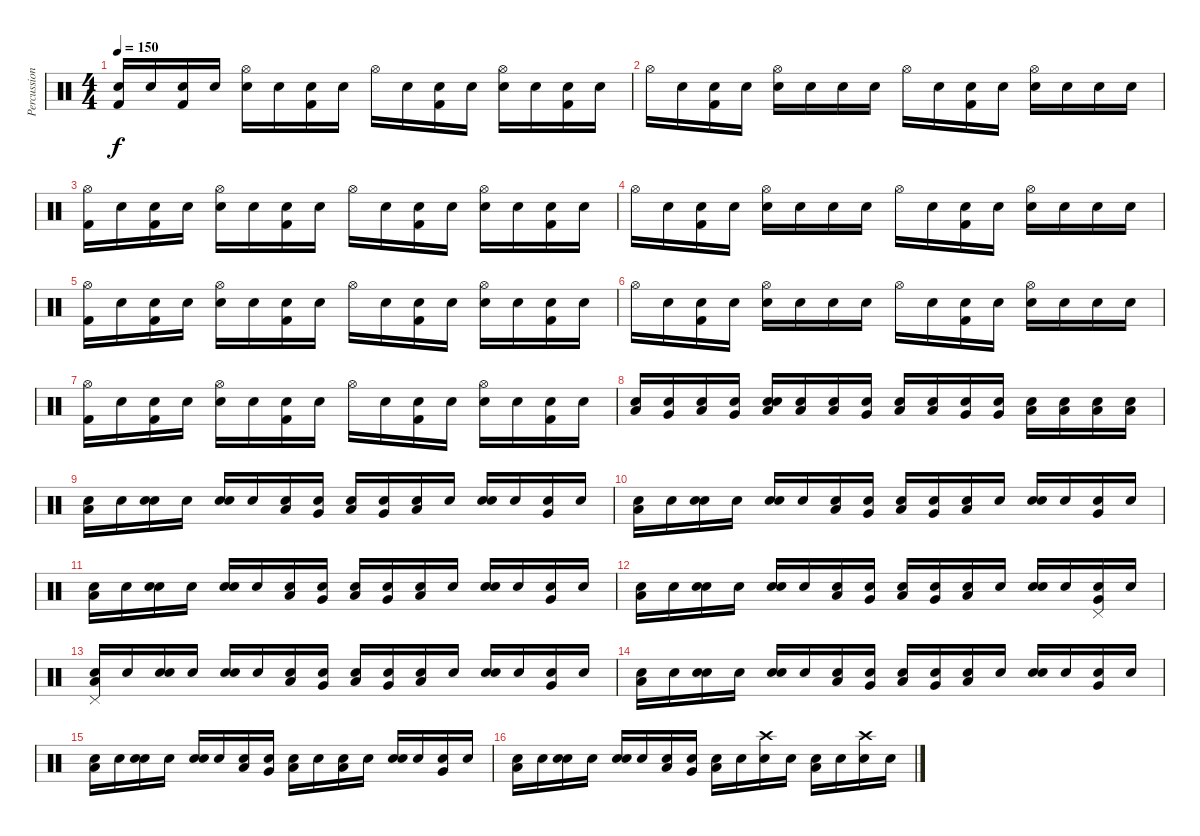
\track ("Percussion" "Percussion") {instrument percussion}
\staff {score}
\articulation defaults
\ts (4 4)
\tempo 150
\clef neutral
\ks c
("Snare (hit)" "Kick (hit) 2").16{dy f} "Snare (hit)".16 ("Snare (hit)" "Kick (hit) 2").16 "Snare (hit)".16 ("Hi-Hat (open)" "Electric Snare (hit)").16 "Snare (hit)".16 ("Snare (hit)" "Kick (hit) 2").16 "Snare (hit)".16 "Hi-Hat (open)".16 "Snare (hit)".16 ("Snare (hit)" "Kick (hit) 2").16 "Snare (hit)".16 ("Hi-Hat (open)" "Electric Snare (hit)").16 "Snare (hit)".16 ("Snare (hit)" "Kick (hit) 2").16 "Snare (hit)".16 |
"Hi-Hat (open)".16 "Snare (hit)".16 ("Snare (hit)" "Kick (hit) 2").16 "Snare (hit)".16 ("Hi-Hat (open)" "Electric Snare (hit)").16 "Snare (hit)".16 "Snare (hit)".16 "Snare (hit)".16 "Hi-Hat (open)".16 "Snare (hit)".16 ("Snare (hit)" "Kick (hit) 2").16 "Snare (hit)".16 ("Hi-Hat (open)" "Electric Snare (hit)").16 "Snare (hit)".16 "Snare (hit)".16 "Snare (hit)".16 |
("Hi-Hat (open)" "Kick (hit) 2").16 "Snare (hit)".16 ("Snare (hit)" "Kick (hit) 2").16 "Snare (hit)".16 ("Hi-Hat (open)" "Electric Snare (hit)").16 "Snare (hit)".16 ("Snare (hit)" "Kick (hit) 2").16 "Snare (hit)".16 "Hi-Hat (open)".16 "Snare (hit)".16 ("Snare (hit)" "Kick (hit) 2").16 "Snare (hit)".16 ("Hi-Hat (open)" "Electric Snare (hit)").16 "Snare (hit)".16 ("Snare (hit)" "Kick (hit) 2").16 "Snare (hit)".16 |
"Hi-Hat (open)".16 "Snare (hit)".16 ("Snare (hit)" "Kick (hit) 2").16 "Snare (hit)".16 ("Hi-Hat (open)" "Electric Snare (hit)").16 "Snare (hit)".16 "Snare (hit)".16 "Snare (hit)".16 "Hi-Hat (open)".16 "Snare (hit)".16 ("Snare (hit)" "Kick (hit) 2").16 "Snare (hit)".16 ("Hi-Hat (open)" "Electric Snare (hit)").16 "Snare (hit)".16 "Snare (hit)".16 "Snare (hit)".16 |
("Hi-Hat (open)" "Kick (hit) 2").16 "Snare (hit)".16 ("Snare (hit)" "Kick (hit) 2").16 "Snare (hit)".16 ("Hi-Hat (open)" "Electric Snare (hit)").16 "Snare (hit)".16 ("Snare (hit)" "Kick (hit) 2").16 "Snare (hit)".16 "Hi-Hat (open)".16 "Snare (hit)".16 ("Snare (hit)" "Kick (hit) 2").16 "Snare (hit)".16 ("Hi-Hat (open)" "Electric Snare (hit)").16 "Snare (hit)".16 ("Snare (hit)" "Kick (hit) 2").16 "Snare (hit)".16 |
"Hi-Hat (open)".16 "Snare (hit)".16 ("Snare (hit)" "Kick (hit) 2").16 "Snare (hit)".16 ("Hi-Hat (open)" "Electric Snare (hit)").16 "Snare (hit)".16 "Snare (hit)".16 "Snare (hit)".16 "Hi-Hat (open)".16 "Snare (hit)".16 ("Snare (hit)" "Kick (hit) 2").16 "Snare (hit)".16 ("Hi-Hat (open)" "Electric Snare (hit)").16 "Snare (hit)".16 "Snare (hit)".16 "Snare (hit)".16 |
("Hi-Hat (open)" "Kick (hit) 2").16 "Snare (hit)".16 ("Snare (hit)" "Kick (hit) 2").16 "Snare (hit)".16 ("Hi-Hat (open)" "Electric Snare (hit)").16 "Snare (hit)".16 ("Snare (hit)" "Kick (hit) 2").16 "Snare (hit)".16 "Hi-Hat (open)".16 "Snare (hit)".16 ("Snare (hit)" "Kick (hit) 2").16 "Snare (hit)".16 ("Hi-Hat (open)" "Electric Snare (hit)").16 "Snare (hit)".16 ("Snare (hit)" "Kick (hit) 2").16 "Snare (hit)".16 |
("Snare (hit)" "Low Tom (hit)").16 ("Snare (hit)" "Very Low Tom (hit)").16 ("Snare (hit)" "Low Floor Tom (hit)").16 ("Snare (hit)" "Very Low Tom (hit)").16 ("Snare (hit)" "Electric Snare (hit)" "Low Tom (hit)").16 ("Snare (hit)" "Low Floor Tom (hit)").16 ("Snare (hit)" "Low Floor Tom (hit)").16 ("Snare (hit)" "Very Low Tom (hit)").16 ("Snare (hit)" "Low Floor Tom (hit)").16 ("Snare (hit)" "Low Tom (hit)").16 ("Snare (hit)" "Very Low Tom (hit)").16 ("Snare (hit)" "Very Low Tom (hit)").16 ("Snare (hit)" "Low Floor Tom (hit)").16 ("Snare (hit)" "Low Floor Tom (hit)").16 ("Snare (hit)" "Low Floor Tom (hit)").16 ("Snare (hit)" "Low Floor Tom (hit)").16 |
("Snare (hit)" "Low Floor Tom (hit)").16 "Snare (hit)".16 ("Snare (hit)" "Snare (hit)").16 "Snare (hit)".16 ("Snare (hit)" "Electric Snare (hit)").16 "Snare (hit)".16 ("Snare (hit)" "Low Tom (hit)").16 ("Snare (hit)" "Very Low Tom (hit)").16 ("Snare (hit)" "Low Floor Tom (hit)").16 ("Snare (hit)" "Very Low Tom (hit)").16 ("Snare (hit)" "Low Floor Tom (hit)").16 "Snare (hit)".16 ("Snare (hit)" "Electric Snare (hit)").16 "Snare (hit)".16 ("Snare (hit)" "Very Low Tom (hit)").16 "Snare (hit)".16 |
("Snare (hit)" "Low Floor Tom (hit)").16 "Snare (hit)".16 ("Snare (hit)" "Snare (hit)").16 "Snare (hit)".16 ("Snare (hit)" "Electric Snare (hit)").16 "Snare (hit)".16 ("Snare (hit)" "Low Tom (hit)").16 ("Snare (hit)" "Very Low Tom (hit)").16 ("Snare (hit)" "Low Floor Tom (hit)").16 ("Snare (hit)" "Very Low Tom (hit)").16 ("Snare (hit)" "Low Floor Tom (hit)").16 "Snare (hit)".16 ("Snare (hit)" "Electric Snare (hit)").16 "Snare (hit)".16 ("Snare (hit)" "Very Low Tom (hit)").16 "Snare (hit)".16 |
("Snare (hit)" "Low Floor Tom (hit)").16 "Snare (hit)".16 ("Snare (hit)" "Snare (hit)").16 "Snare (hit)".16 ("Snare (hit)" "Electric Snare (hit)").16 "Snare (hit)".16 ("Snare (hit)" "Low Tom (hit)").16 ("Snare (hit)" "Very Low Tom (hit)").16 ("Snare (hit)" "Low Floor Tom (hit)").16 ("Snare (hit)" "Very Low Tom (hit)").16 ("Snare (hit)" "Low Floor Tom (hit)").16 "Snare (hit)".16 ("Snare (hit)" "Electric Snare (hit)").16 "Snare (hit)".16 ("Snare (hit)" "Very Low Tom (hit)").16 "Snare (hit)".16 |
("Snare (hit)" "Low Floor Tom (hit)").16 "Snare (hit)".16 ("Snare (hit)" "Snare (hit)").16 "Snare (hit)".16 ("Snare (hit)" "Electric Snare (hit)").16 "Snare (hit)".16 ("Snare (hit)" "Low Tom (hit)").16 ("Snare (hit)" "Very Low Tom (hit)").16 ("Snare (hit)" "Low Floor Tom (hit)").16 ("Snare (hit)" "Very Low Tom (hit)").16 ("Snare (hit)" "Low Floor Tom (hit)").16 "Snare (hit)".16 ("Snare (hit)" "Electric Snare (hit)").16 "Snare (hit)".16 ("Snare (hit)" "Pedal Hi-Hat (hit)" "Very Low Tom (hit)").16 "Snare (hit)".16 |
("Snare (hit)" "Pedal Hi-Hat (hit)" "Low Floor Tom (hit)").16 "Snare (hit)".16 ("Snare (hit)" "Snare (hit)").16 "Snare (hit)".16 ("Snare (hit)" "Electric Snare (hit)").16 "Snare (hit)".16 ("Snare (hit)" "Low Tom (hit)").16 ("Snare (hit)" "Very Low Tom (hit)").16 ("Snare (hit)" "Low Floor Tom (hit)").16 ("Snare (hit)" "Very Low Tom (hit)").16 ("Snare (hit)" "Low Floor Tom (hit)").16 "Snare (hit)".16 ("Snare (hit)" "Electric Snare (hit)").16 "Snare (hit)".16 ("Snare (hit)" "Very Low Tom (hit)").16 "Snare (hit)".16 |
("Snare (hit)" "Low Floor Tom (hit)").16 "Snare (hit)".16 ("Snare (hit)" "Snare (hit)").16 "Snare (hit)".16 ("Snare (hit)" "Electric Snare (hit)").16 "Snare (hit)".16 ("Snare (hit)" "Low Tom (hit)").16 ("Snare (hit)" "Very Low Tom (hit)").16 ("Snare (hit)" "Low Floor Tom (hit)").16 ("Snare (hit)" "Very Low Tom (hit)").16 ("Snare (hit)" "Low Floor Tom (hit)").16 "Snare (hit)".16 ("Snare (hit)" "Electric Snare (hit)").16 "Snare (hit)".16 ("Snare (hit)" "Very Low Tom (hit)").16 "Snare (hit)".16 |
("Snare (hit)" "Low Floor Tom (hit)").16 "Snare (hit)".16 ("Snare (hit)" "Snare (hit)").16 "Snare (hit)".16 ("Snare (hit)" "Electric Snare (hit)").16 "Snare (hit)".16 ("Snare (hit)" "Low Tom (hit)").16 ("Snare (hit)" "Very Low Tom (hit)").16 ("Snare (hit)" "Low Floor Tom (hit)").16 "Snare (hit)".16 ("Snare (hit)" "Low Floor Tom (hit)").16 "Snare (hit)".16 ("Snare (hit)" "Electric Snare (hit)").16 "Snare (hit)".16 ("Snare (hit)" "Very Low Tom (hit)").16 "Snare (hit)".16 |
("Snare (hit)" "Low Floor Tom (hit)").16 "Snare (hit)".16 ("Snare (hit)" "Snare (hit)").16 "Snare (hit)".16 ("Snare (hit)" "Electric Snare (hit)").16 "Snare (hit)".16 ("Snare (hit)" "Low Tom (hit)").16 ("Snare (hit)" "Very Low Tom (hit)").16 ("Snare (hit)" "Low Floor Tom (hit)").16 "Snare (hit)".16 ("Snare (hit)" "Crash high (hit)").16 "Snare (hit)".16 ("Snare (hit)" "Low Floor Tom (hit)").16 "Snare (hit)".16 ("Snare (hit)" "Crash high (hit)").16 "Snare (hit)".16
